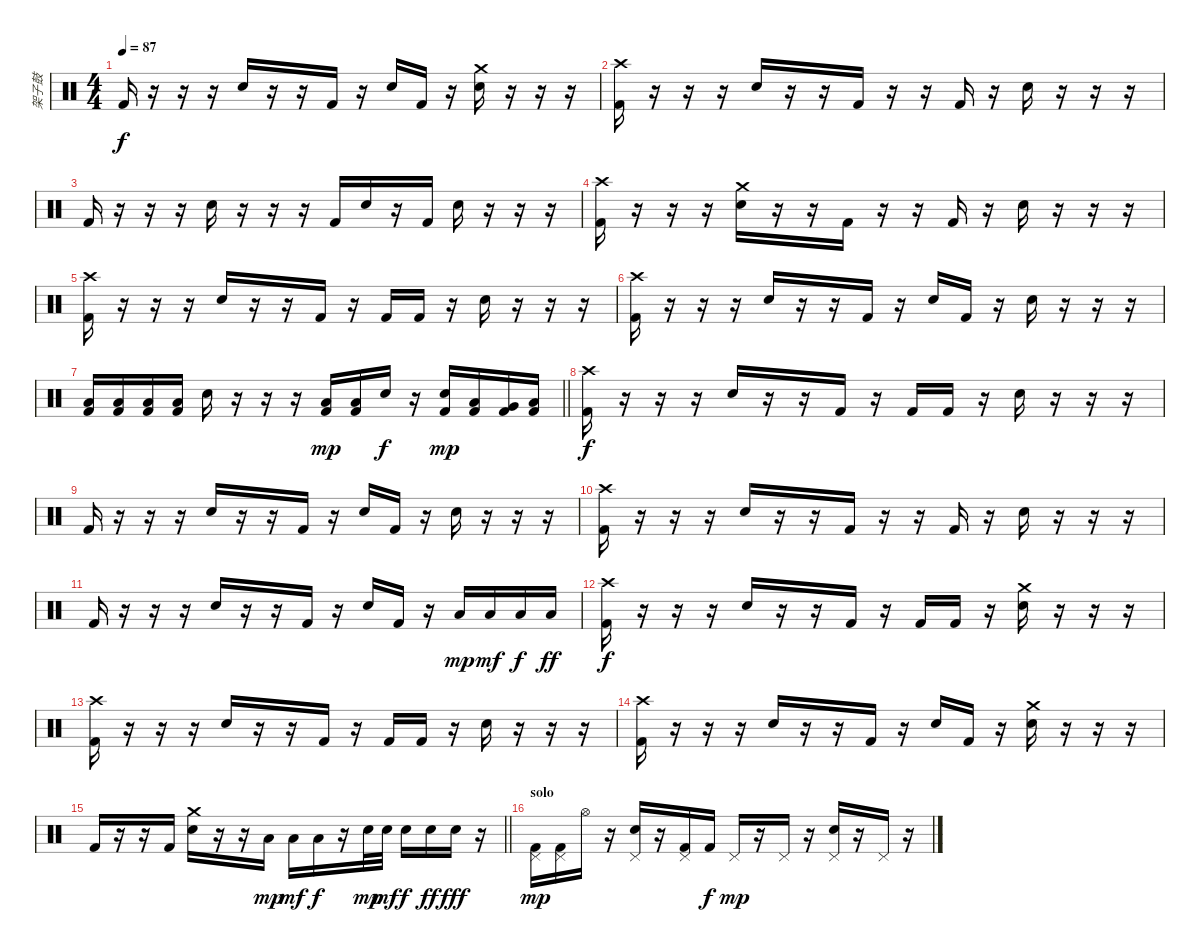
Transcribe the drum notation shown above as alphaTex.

\track ("架子鼓" "架子鼓") {instrument percussion}
\staff {score}
\articulation defaults
\ts (4 4)
\tempo 87
\clef neutral
\ks c "Kick (hit) 2".16{dy f}
r.16 r.16 r.16 "Electric Snare (hit)".16 r.16 r.16 "Kick (hit) 2".16 r.16 "Electric Snare (hit)".16 "Kick (hit) 2".16 r.16 ("Crash medium (hit)" "Electric Snare (hit)").16 r.16 r.16 r.16 |
("Crash high (hit)" "Kick (hit) 2").16 r.16 r.16 r.16 "Electric Snare (hit)".16 r.16 r.16 "Kick (hit) 2".16 r.16 r.16 "Kick (hit) 2".16 r.16 "Electric Snare (hit)".16 r.16 r.16 r.16 |
"Kick (hit) 2".16 r.16 r.16 r.16 "Electric Snare (hit)".16 r.16 r.16 r.16 "Kick (hit) 2".16 "Electric Snare (hit)".16 r.16 "Kick (hit) 2".16 "Electric Snare (hit)".16 r.16 r.16 r.16 |
("Crash high (hit)" "Kick (hit) 2").16 r.16 r.16 r.16 ("Crash medium (hit)" "Electric Snare (hit)").16 r.16 r.16 "Kick (hit) 2".16 r.16 r.16 "Kick (hit) 2".16 r.16 "Electric Snare (hit)".16 r.16 r.16 r.16 |
("Crash high (hit)" "Kick (hit) 2").16 r.16 r.16 r.16 "Electric Snare (hit)".16 r.16 r.16 "Kick (hit) 2".16 r.16 "Kick (hit) 2".16 "Kick (hit) 2".16 r.16 "Electric Snare (hit)".16 r.16 r.16 r.16 |
("Crash high (hit)" "Kick (hit) 2").16 r.16 r.16 r.16 "Electric Snare (hit)".16 r.16 r.16 "Kick (hit) 2".16 r.16 "Electric Snare (hit)".16 "Kick (hit) 2".16 r.16 "Electric Snare (hit)".16 r.16 r.16 r.16 |
\barLineRight lightlight
("Low Tom (hit)" "Kick (hit) 2").16 ("Low Tom (hit)" "Kick (hit) 2").16 ("Low Tom (hit)" "Kick (hit) 2").16 ("Low Tom (hit)" "Kick (hit) 2").16 "Electric Snare (hit)".16 r.16 r.16 r.16 ("Low Tom (hit)" "Kick (hit) 2").16{dy mp} ("Low Tom (hit)" "Kick (hit) 2").16 "Electric Snare (hit)".16{dy f} r.16 ("Snare (hit) 2" "Kick (hit) 2").16{dy mp} ("Low Tom (hit)" "Kick (hit) 2").16 ("Very Low Tom (hit)" "Kick (hit) 2").16 ("Low Floor Tom (hit)" "Kick (hit) 2").16 |
("Crash high (hit)" "Kick (hit) 2").16{dy f} r.16 r.16 r.16 "Electric Snare (hit)".16 r.16 r.16 "Kick (hit) 2".16 r.16 "Kick (hit) 2".16 "Kick (hit) 2".16 r.16 "Electric Snare (hit)".16 r.16 r.16 r.16 |
"Kick (hit) 2".16 r.16 r.16 r.16 "Electric Snare (hit)".16 r.16 r.16 "Kick (hit) 2".16 r.16 "Electric Snare (hit)".16 "Kick (hit) 2".16 r.16 "Electric Snare (hit)".16 r.16 r.16 r.16 |
("Crash high (hit)" "Kick (hit) 2").16 r.16 r.16 r.16 "Electric Snare (hit)".16 r.16 r.16 "Kick (hit) 2".16 r.16 r.16 "Kick (hit) 2".16 r.16 "Electric Snare (hit)".16 r.16 r.16 r.16 |
"Kick (hit) 2".16 r.16 r.16 r.16 "Electric Snare (hit)".16 r.16 r.16 "Kick (hit) 2".16 r.16 "Electric Snare (hit)".16 "Kick (hit) 2".16 r.16 "Low Floor Tom (hit)".16{dy mp} "Low Floor Tom (hit)".16{dy mf} "Low Floor Tom (hit)".16{dy f} "Low Floor Tom (hit)".16{dy ff} |
("Crash high (hit)" "Kick (hit) 2").16{dy f} r.16 r.16 r.16 "Electric Snare (hit)".16 r.16 r.16 "Kick (hit) 2".16 r.16 "Kick (hit) 2".16 "Kick (hit) 2".16 r.16 ("Crash medium (hit)" "Electric Snare (hit)").16 r.16 r.16 r.16 |
("Crash high (hit)" "Kick (hit) 2").16 r.16 r.16 r.16 "Electric Snare (hit)".16 r.16 r.16 "Kick (hit) 2".16 r.16 "Kick (hit) 2".16 "Kick (hit) 2".16 r.16 "Electric Snare (hit)".16 r.16 r.16 r.16 |
("Crash high (hit)" "Kick (hit) 2").16 r.16 r.16 r.16 "Electric Snare (hit)".16 r.16 r.16 "Kick (hit) 2".16 r.16 "Electric Snare (hit)".16 "Kick (hit) 2".16 r.16 ("Crash medium (hit)" "Electric Snare (hit)").16 r.16 r.16 r.16 |
\barLineRight lightlight "Kick (hit) 2".16
r.16 r.16 "Kick (hit) 2".16 ("Crash medium (hit)" "Electric Snare (hit)").16 r.16 r.16 "Low Tom (hit)".16{dy mp} "Low Tom (hit)".16{dy mf} "Low Tom (hit)".16{dy f} r.16 "Electric Snare (hit)".32{dy mp} "Electric Snare (hit)".32{dy mf} "Electric Snare (hit)".16{dy f} "Electric Snare (hit)".16{dy ff} "Electric Snare (hit)".16{dy fff} r.16 |
\section ("" "solo")
("Pedal Hi-Hat (hit)" "Kick (hit) 2").16{dy mp} ("Pedal Hi-Hat (hit)" "Kick (hit) 2").16 "Hi-Hat (open)".16 r.16 ("Pedal Hi-Hat (hit)" "Electric Snare (hit)").16 r.16 ("Pedal Hi-Hat (hit)" "Kick (hit) 2").16 "Kick (hit) 2".16{dy f} "Pedal Hi-Hat (hit)".16{dy mp} r.16 "Pedal Hi-Hat (hit)".16 r.16 ("Pedal Hi-Hat (hit)" "Electric Snare (hit)").16 r.16 "Pedal Hi-Hat (hit)".16 r.16
